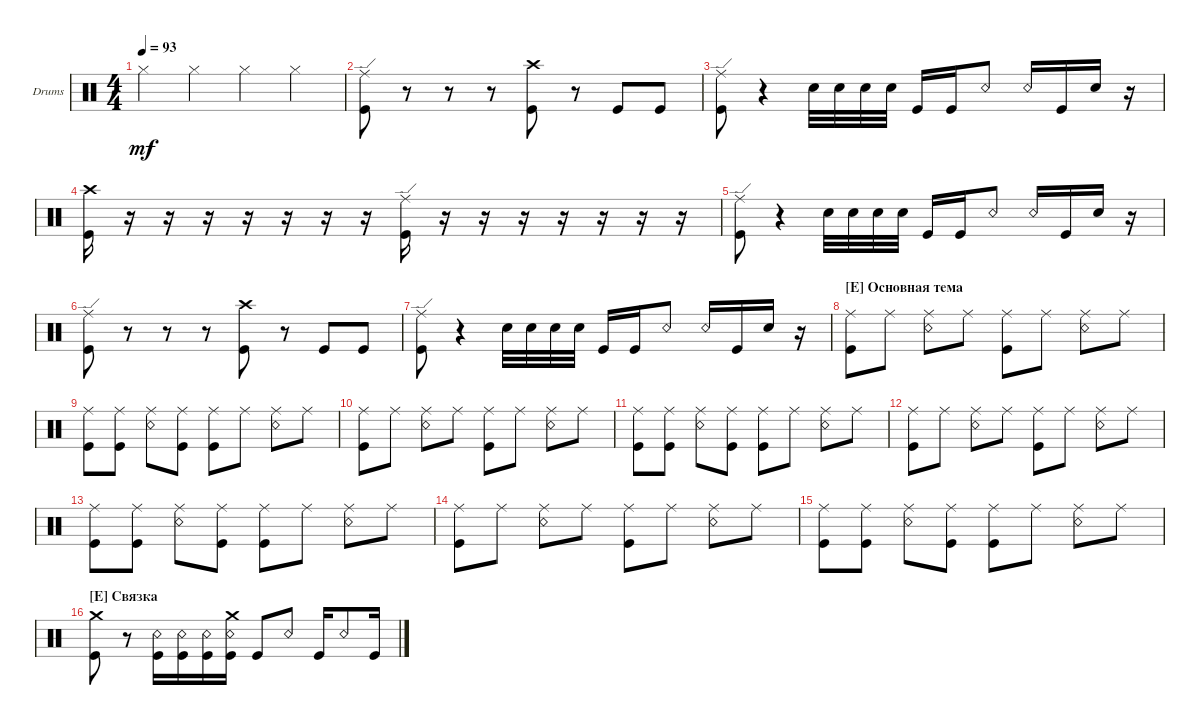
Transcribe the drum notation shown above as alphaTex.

\bracketExtendMode groupsimilarinstruments
\firstSystemTrackNameOrientation horizontal
\otherSystemsTrackNameOrientation horizontal
\track ("Drumkit" "Drums") {instrument percussion}
\staff {score}
\articulation defaults
\ts (4 4)
\tempo 93
\clef neutral
\ks c "Hi-Hat (closed)".4{dy mf} "Hi-Hat (closed)".4 "Hi-Hat (closed)".4 "Hi-Hat (closed)".4
|
("Kick (hit)" "Ride (edge)").8 r.8 r.8 r.8 ("Kick (hit)" "Crash high (hit)").8 r.8 "Kick (hit)".8 "Kick (hit)".8 |
("Kick (hit)" "Ride (edge)").8 r.4 "Snare (hit) 2".32 "Snare (hit) 2".32 "Snare (hit) 2".32 "Snare (hit) 2".32 "Kick (hit)".16 "Kick (hit)".16 "Snare (rim shot)".8 "Snare (rim shot)".16 "Kick (hit)".16 "Snare (hit) 2".16 r.16 |
("Kick (hit)" "Crash high (hit)").16 r.16 r.16 r.16 r.16 r.16 r.16 r.16 ("Kick (hit)" "Ride (edge)").16 r.16 r.16 r.16 r.16 r.16 r.16 r.16 |
("Kick (hit)" "Ride (edge)").8 r.4 "Snare (hit) 2".32 "Snare (hit) 2".32 "Snare (hit) 2".32 "Snare (hit) 2".32 "Kick (hit)".16 "Kick (hit)".16 "Snare (rim shot)".8 "Snare (rim shot)".16 "Kick (hit)".16 "Snare (hit) 2".16 r.16 |
("Kick (hit)" "Ride (edge)").8 r.8 r.8 r.8 ("Kick (hit)" "Crash high (hit)").8 r.8 "Kick (hit)".8 "Kick (hit)".8 |
("Kick (hit)" "Ride (edge)").8 r.4 "Snare (hit) 2".32 "Snare (hit) 2".32 "Snare (hit) 2".32 "Snare (hit) 2".32 "Kick (hit)".16 "Kick (hit)".16 "Snare (rim shot)".8 "Snare (rim shot)".16 "Kick (hit)".16 "Snare (hit) 2".16 r.16 |
\section ("E" "Основная тема")
("Kick (hit)" "Ride (middle)").8 "Ride (middle)".8 ("Ride (middle)" "Snare (rim shot)").8 "Ride (middle)".8 ("Ride (middle)" "Kick (hit)").8 "Ride (middle)".8 ("Ride (middle)" "Snare (rim shot)").8 "Ride (middle)".8 |
("Kick (hit)" "Ride (middle)").8 ("Kick (hit)" "Ride (middle)").8 ("Snare (rim shot)" "Ride (middle)").8 ("Kick (hit)" "Ride (middle)").8 ("Ride (middle)" "Kick (hit)").8 "Ride (middle)".8 ("Ride (middle)" "Snare (rim shot)").8 "Ride (middle)".8 |
("Kick (hit)" "Ride (middle)").8 "Ride (middle)".8 ("Ride (middle)" "Snare (rim shot)").8 "Ride (middle)".8 ("Ride (middle)" "Kick (hit)").8 "Ride (middle)".8 ("Ride (middle)" "Snare (rim shot)").8 "Ride (middle)".8 |
("Kick (hit)" "Ride (middle)").8 ("Kick (hit)" "Ride (middle)").8 ("Snare (rim shot)" "Ride (middle)").8 ("Kick (hit)" "Ride (middle)").8 ("Ride (middle)" "Kick (hit)").8 "Ride (middle)".8 ("Ride (middle)" "Snare (rim shot)").8 "Ride (middle)".8 |
("Kick (hit)" "Ride (middle)").8 "Ride (middle)".8 ("Ride (middle)" "Snare (rim shot)").8 "Ride (middle)".8 ("Ride (middle)" "Kick (hit)").8 "Ride (middle)".8 ("Ride (middle)" "Snare (rim shot)").8 "Ride (middle)".8 |
("Kick (hit)" "Ride (middle)").8 ("Kick (hit)" "Ride (middle)").8 ("Snare (rim shot)" "Ride (middle)").8 ("Kick (hit)" "Ride (middle)").8 ("Ride (middle)" "Kick (hit)").8 "Ride (middle)".8 ("Ride (middle)" "Snare (rim shot)").8 "Ride (middle)".8 |
("Kick (hit)" "Ride (middle)").8 "Ride (middle)".8 ("Ride (middle)" "Snare (rim shot)").8 "Ride (middle)".8 ("Ride (middle)" "Kick (hit)").8 "Ride (middle)".8 ("Ride (middle)" "Snare (rim shot)").8 "Ride (middle)".8 |
("Kick (hit)" "Ride (middle)").8 ("Kick (hit)" "Ride (middle)").8 ("Snare (rim shot)" "Ride (middle)").8 ("Kick (hit)" "Ride (middle)").8 ("Ride (middle)" "Kick (hit)").8 "Ride (middle)".8 ("Ride (middle)" "Snare (rim shot)").8 "Ride (middle)".8 |
\section ("E" "Связка")
("Kick (hit)" "Crash medium (hit)").8 r.8 ("Kick (hit)" "Snare (rim shot)").16 ("Kick (hit)" "Snare (rim shot)").16 ("Kick (hit)" "Snare (rim shot)").16 ("Crash medium (hit)" "Snare (rim shot)" "Kick (hit)").16 "Kick (hit)".8 "Snare (rim shot)".8 "Kick (hit)".16 "Snare (rim shot)".8 "Kick (hit)".16
